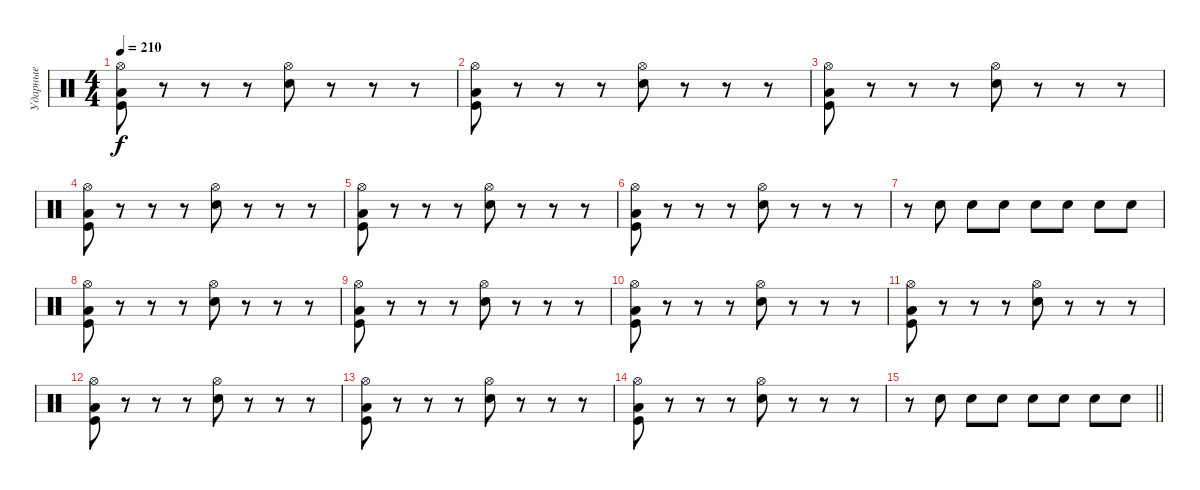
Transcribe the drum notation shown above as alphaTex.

\track ("Ударные" "Ударные") {instrument percussion}
\staff {score}
\articulation defaults
\ts (4 4)
\tempo 210
\clef neutral
\ks c
("Hi-Hat (open)" "Low Tom (hit)" "Kick (hit)").8{dy f} r.8 r.8 r.8 ("Hi-Hat (open)" "Electric Snare (hit)").8 r.8 r.8 r.8 |
("Hi-Hat (open)" "Low Tom (hit)" "Kick (hit)").8 r.8 r.8 r.8 ("Hi-Hat (open)" "Electric Snare (hit)").8 r.8 r.8 r.8 |
("Hi-Hat (open)" "Low Tom (hit)" "Kick (hit)").8 r.8 r.8 r.8 ("Hi-Hat (open)" "Electric Snare (hit)").8 r.8 r.8 r.8 |
("Hi-Hat (open)" "Low Tom (hit)" "Kick (hit)").8 r.8 r.8 r.8 ("Hi-Hat (open)" "Electric Snare (hit)").8 r.8 r.8 r.8 |
("Hi-Hat (open)" "Low Tom (hit)" "Kick (hit)").8 r.8 r.8 r.8 ("Hi-Hat (open)" "Electric Snare (hit)").8 r.8 r.8 r.8 |
("Hi-Hat (open)" "Low Tom (hit)" "Kick (hit)").8 r.8 r.8 r.8 ("Hi-Hat (open)" "Electric Snare (hit)").8 r.8 r.8 r.8 |
r.8 "Electric Snare (hit)".8 "Electric Snare (hit)".8 "Electric Snare (hit)".8 "Electric Snare (hit)".8 "Electric Snare (hit)".8 "Electric Snare (hit)".8 "Electric Snare (hit)".8 |
("Hi-Hat (open)" "Low Tom (hit)" "Kick (hit)").8 r.8 r.8 r.8 ("Hi-Hat (open)" "Electric Snare (hit)").8 r.8 r.8 r.8 |
("Hi-Hat (open)" "Low Tom (hit)" "Kick (hit)").8 r.8 r.8 r.8 ("Hi-Hat (open)" "Electric Snare (hit)").8 r.8 r.8 r.8 |
("Hi-Hat (open)" "Low Tom (hit)" "Kick (hit)").8 r.8 r.8 r.8 ("Hi-Hat (open)" "Electric Snare (hit)").8 r.8 r.8 r.8 |
("Hi-Hat (open)" "Low Tom (hit)" "Kick (hit)").8 r.8 r.8 r.8 ("Hi-Hat (open)" "Electric Snare (hit)").8 r.8 r.8 r.8 |
("Hi-Hat (open)" "Low Tom (hit)" "Kick (hit)").8 r.8 r.8 r.8 ("Hi-Hat (open)" "Electric Snare (hit)").8 r.8 r.8 r.8 |
("Hi-Hat (open)" "Low Tom (hit)" "Kick (hit)").8 r.8 r.8 r.8 ("Hi-Hat (open)" "Electric Snare (hit)").8 r.8 r.8 r.8 |
("Hi-Hat (open)" "Low Tom (hit)" "Kick (hit)").8 r.8 r.8 r.8 ("Hi-Hat (open)" "Electric Snare (hit)").8 r.8 r.8 r.8 |
\barLineRight lightlight
r.8 "Electric Snare (hit)".8 "Electric Snare (hit)".8 "Electric Snare (hit)".8 "Electric Snare (hit)".8 "Electric Snare (hit)".8 "Electric Snare (hit)".8 "Electric Snare (hit)".8
